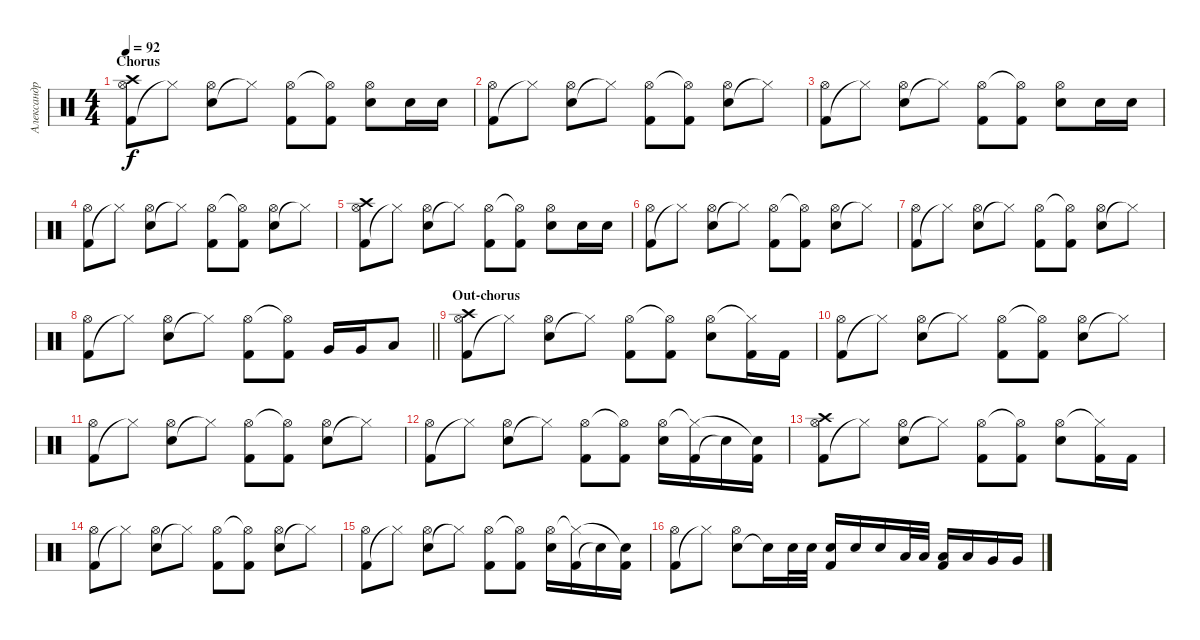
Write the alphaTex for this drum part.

\track ("Александр Барзилович" "Александр ") {instrument percussion}
\staff {score}
\articulation defaults
\ts (4 4)
\section ("" "Chorus")
\tempo 92
\clef neutral
\ks c
("Kick (hit) 2" "Hi-Hat (open)" "Crash high (hit)").8{dy f} "Hi-Hat (closed)"{t}.8 ("Electric Snare (hit)" "Hi-Hat (open)").8 "Hi-Hat (closed)"{t}.8 ("Kick (hit) 2" "Hi-Hat (open)").8 ("Kick (hit) 2" "Hi-Hat (open)"{t}).8 ("Electric Snare (hit)" "Hi-Hat (open)").8 "Electric Snare (hit)".16 "Electric Snare (hit)".16 |
("Kick (hit) 2" "Hi-Hat (open)").8 "Hi-Hat (closed)"{t}.8 ("Electric Snare (hit)" "Hi-Hat (open)").8 "Hi-Hat (closed)"{t}.8 ("Kick (hit) 2" "Hi-Hat (open)").8 ("Kick (hit) 2" "Hi-Hat (open)"{t}).8 ("Electric Snare (hit)" "Hi-Hat (open)").8 "Hi-Hat (closed)"{t}.8 |
("Kick (hit) 2" "Hi-Hat (open)").8 "Hi-Hat (closed)"{t}.8 ("Electric Snare (hit)" "Hi-Hat (open)").8 "Hi-Hat (closed)"{t}.8 ("Kick (hit) 2" "Hi-Hat (open)").8 ("Kick (hit) 2" "Hi-Hat (open)"{t}).8 ("Electric Snare (hit)" "Hi-Hat (open)").8 "Electric Snare (hit)".16 "Electric Snare (hit)".16 |
("Kick (hit) 2" "Hi-Hat (open)").8 "Hi-Hat (closed)"{t}.8 ("Electric Snare (hit)" "Hi-Hat (open)").8 "Hi-Hat (closed)"{t}.8 ("Kick (hit) 2" "Hi-Hat (open)").8 ("Kick (hit) 2" "Hi-Hat (open)"{t}).8 ("Electric Snare (hit)" "Hi-Hat (open)").8 "Hi-Hat (closed)"{t}.8 |
("Kick (hit) 2" "Hi-Hat (open)" "Crash high (hit)").8 "Hi-Hat (closed)"{t}.8 ("Electric Snare (hit)" "Hi-Hat (open)").8 "Hi-Hat (closed)"{t}.8 ("Kick (hit) 2" "Hi-Hat (open)").8 ("Kick (hit) 2" "Hi-Hat (open)"{t}).8 ("Electric Snare (hit)" "Hi-Hat (open)").8 "Electric Snare (hit)".16 "Electric Snare (hit)".16 |
("Kick (hit) 2" "Hi-Hat (open)").8 "Hi-Hat (closed)"{t}.8 ("Electric Snare (hit)" "Hi-Hat (open)").8 "Hi-Hat (closed)"{t}.8 ("Kick (hit) 2" "Hi-Hat (open)").8 ("Kick (hit) 2" "Hi-Hat (open)"{t}).8 ("Electric Snare (hit)" "Hi-Hat (open)").8 "Hi-Hat (closed)"{t}.8 |
("Kick (hit) 2" "Hi-Hat (open)").8 "Hi-Hat (closed)"{t}.8 ("Electric Snare (hit)" "Hi-Hat (open)").8 "Hi-Hat (closed)"{t}.8 ("Kick (hit) 2" "Hi-Hat (open)").8 ("Kick (hit) 2" "Hi-Hat (open)"{t}).8 ("Electric Snare (hit)" "Hi-Hat (open)").8 "Hi-Hat (closed)"{t}.8 |
\barLineRight lightlight
("Kick (hit) 2" "Hi-Hat (open)").8 "Hi-Hat (closed)"{t}.8 ("Electric Snare (hit)" "Hi-Hat (open)").8 "Hi-Hat (closed)"{t}.8 ("Kick (hit) 2" "Hi-Hat (open)").8 ("Kick (hit) 2" "Hi-Hat (open)"{t}).8 "Very Low Tom (hit)".16 "Very Low Tom (hit)".16 "Low Tom (hit)".8 |
\section ("" "Out-chorus")
("Kick (hit) 2" "Hi-Hat (open)" "Crash high (hit)").8 "Hi-Hat (closed)"{t}.8 ("Electric Snare (hit)" "Hi-Hat (open)").8 "Hi-Hat (closed)"{t}.8 ("Kick (hit) 2" "Hi-Hat (open)").8 ("Kick (hit) 2" "Hi-Hat (open)"{t}).8 ("Electric Snare (hit)" "Hi-Hat (open)").8 ("Kick (hit) 2" "Hi-Hat (closed)"{t}).16 "Kick (hit) 2".16 |
("Kick (hit) 2" "Hi-Hat (open)").8 "Hi-Hat (closed)"{t}.8 ("Electric Snare (hit)" "Hi-Hat (open)").8 "Hi-Hat (closed)"{t}.8 ("Kick (hit) 2" "Hi-Hat (open)").8 ("Kick (hit) 2" "Hi-Hat (open)"{t}).8 ("Electric Snare (hit)" "Hi-Hat (open)").8 "Hi-Hat (closed)"{t}.8 |
("Kick (hit) 2" "Hi-Hat (open)").8 "Hi-Hat (closed)"{t}.8 ("Electric Snare (hit)" "Hi-Hat (open)").8 "Hi-Hat (closed)"{t}.8 ("Kick (hit) 2" "Hi-Hat (open)").8 ("Kick (hit) 2" "Hi-Hat (open)"{t}).8 ("Electric Snare (hit)" "Hi-Hat (open)").8 "Hi-Hat (closed)"{t}.8 |
("Kick (hit) 2" "Hi-Hat (open)").8 "Hi-Hat (closed)"{t}.8 ("Electric Snare (hit)" "Hi-Hat (open)").8 "Hi-Hat (closed)"{t}.8 ("Kick (hit) 2" "Hi-Hat (open)").8 ("Kick (hit) 2" "Hi-Hat (open)"{t}).8 ("Electric Snare (hit)" "Hi-Hat (open)").16 ("Kick (hit) 2" "Hi-Hat (closed)"{t}).16 "Snare (hit)"{t}.16 ("Kick (hit) 2" "Snare (hit)"{t}).16 |
("Kick (hit) 2" "Hi-Hat (open)" "Crash high (hit)").8 "Hi-Hat (closed)"{t}.8 ("Electric Snare (hit)" "Hi-Hat (open)").8 "Hi-Hat (closed)"{t}.8 ("Kick (hit) 2" "Hi-Hat (open)").8 ("Kick (hit) 2" "Hi-Hat (open)"{t}).8 ("Electric Snare (hit)" "Hi-Hat (open)").8 ("Kick (hit) 2" "Hi-Hat (closed)"{t}).16 "Kick (hit) 2".16 |
("Kick (hit) 2" "Hi-Hat (open)").8 "Hi-Hat (closed)"{t}.8 ("Electric Snare (hit)" "Hi-Hat (open)").8 "Hi-Hat (closed)"{t}.8 ("Kick (hit) 2" "Hi-Hat (open)").8 ("Kick (hit) 2" "Hi-Hat (open)"{t}).8 ("Electric Snare (hit)" "Hi-Hat (open)").8 "Hi-Hat (closed)"{t}.8 |
("Kick (hit) 2" "Hi-Hat (open)").8 "Hi-Hat (closed)"{t}.8 ("Electric Snare (hit)" "Hi-Hat (open)").8 "Hi-Hat (closed)"{t}.8 ("Kick (hit) 2" "Hi-Hat (open)").8 ("Kick (hit) 2" "Hi-Hat (open)"{t}).8 ("Electric Snare (hit)" "Hi-Hat (open)").16 ("Kick (hit) 2" "Hi-Hat (closed)"{t}).16 "Snare (hit)"{t}.16 ("Kick (hit) 2" "Snare (hit)"{t}).16 |
("Kick (hit) 2" "Hi-Hat (open)").8 "Hi-Hat (closed)"{t}.8 ("Electric Snare (hit)" "Hi-Hat (open)").8 "Snare (hit)"{t}.16 "Electric Snare (hit)".32 "Electric Snare (hit)".32 ("Kick (hit) 2" "Electric Snare (hit)").16 "Electric Snare (hit)".16 "Electric Snare (hit)".16 "Low Tom (hit)".32 "Low Tom (hit)".32 ("Kick (hit) 2" "Low Tom (hit)").16 "Low Tom (hit)".16 "Very Low Tom (hit)".16 "Very Low Tom (hit)".16
